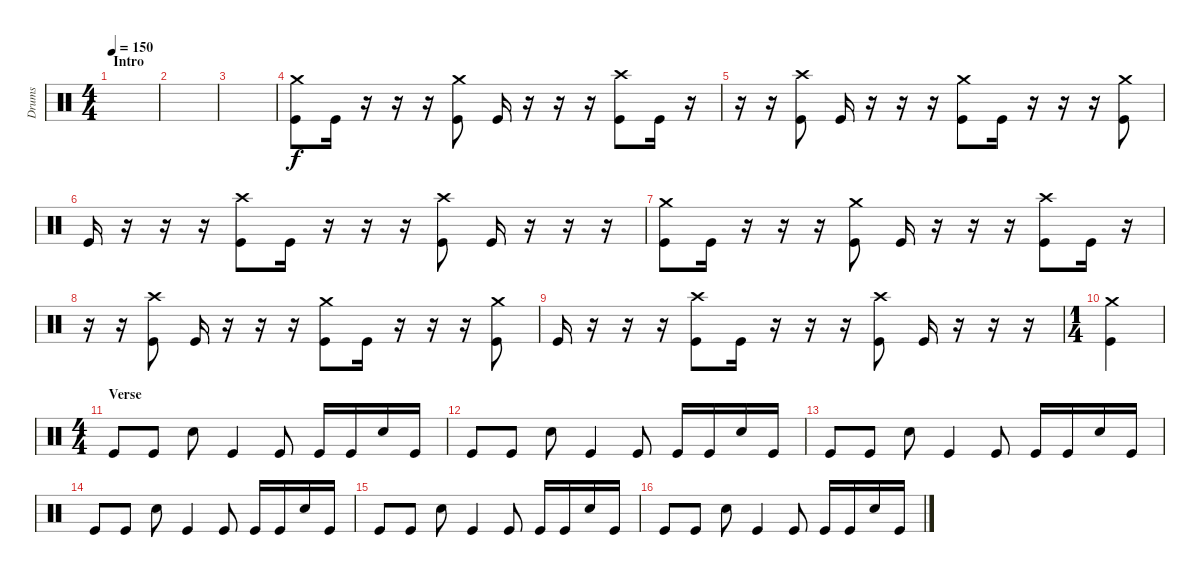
\track ("Drums" "Drums") {instrument percussion}
\staff {score}
\articulation defaults
\ts (4 4)
\section ("" "Intro")
\tempo 150
\clef neutral
\ks c
|
|
|
("Crash medium (hit)" "Kick (hit)").8 "Kick (hit)".16 r.16 r.16 r.16 ("Crash medium (hit)" "Kick (hit)").8 "Kick (hit)".16 r.16 r.16 r.16 ("Crash high (hit)" "Kick (hit)").8 "Kick (hit)".16 r.16 |
r.16 r.16 ("Crash high (hit)" "Kick (hit)").8 "Kick (hit)".16 r.16 r.16 r.16 ("Crash medium (hit)" "Kick (hit)").8 "Kick (hit)".16 r.16 r.16 r.16 ("Crash medium (hit)" "Kick (hit)").8 |
"Kick (hit)".16 r.16 r.16 r.16 ("Crash high (hit)" "Kick (hit)").8 "Kick (hit)".16 r.16 r.16 r.16 ("Crash high (hit)" "Kick (hit)").8 "Kick (hit)".16 r.16 r.16 r.16 |
("Crash medium (hit)" "Kick (hit)").8 "Kick (hit)".16 r.16 r.16 r.16 ("Crash medium (hit)" "Kick (hit)").8 "Kick (hit)".16 r.16 r.16 r.16 ("Crash high (hit)" "Kick (hit)").8 "Kick (hit)".16 r.16 |
r.16 r.16 ("Crash high (hit)" "Kick (hit)").8 "Kick (hit)".16 r.16 r.16 r.16 ("Crash medium (hit)" "Kick (hit)").8 "Kick (hit)".16 r.16 r.16 r.16 ("Crash medium (hit)" "Kick (hit)").8 |
"Kick (hit)".16 r.16 r.16 r.16 ("Crash high (hit)" "Kick (hit)").8 "Kick (hit)".16 r.16 r.16 r.16 ("Crash high (hit)" "Kick (hit)").8 "Kick (hit)".16 r.16 r.16 r.16 |
\ts (1 4)
("Crash medium (hit)" "Kick (hit)").4 |
\ts (4 4)
\section ("" "Verse")
"Kick (hit)".8 "Kick (hit)".8 "Electric Snare (hit)".8 "Kick (hit)".4 "Kick (hit)".8 "Kick (hit)".16 "Kick (hit)".16 "Electric Snare (hit)".16 "Kick (hit)".16 |
"Kick (hit)".8 "Kick (hit)".8 "Electric Snare (hit)".8 "Kick (hit)".4 "Kick (hit)".8 "Kick (hit)".16 "Kick (hit)".16 "Electric Snare (hit)".16 "Kick (hit)".16 |
"Kick (hit)".8 "Kick (hit)".8 "Electric Snare (hit)".8 "Kick (hit)".4 "Kick (hit)".8 "Kick (hit)".16 "Kick (hit)".16 "Electric Snare (hit)".16 "Kick (hit)".16 |
"Kick (hit)".8 "Kick (hit)".8 "Electric Snare (hit)".8 "Kick (hit)".4 "Kick (hit)".8 "Kick (hit)".16 "Kick (hit)".16 "Electric Snare (hit)".16 "Kick (hit)".16 |
"Kick (hit)".8 "Kick (hit)".8 "Electric Snare (hit)".8 "Kick (hit)".4 "Kick (hit)".8 "Kick (hit)".16 "Kick (hit)".16 "Electric Snare (hit)".16 "Kick (hit)".16 |
"Kick (hit)".8 "Kick (hit)".8 "Electric Snare (hit)".8 "Kick (hit)".4 "Kick (hit)".8 "Kick (hit)".16 "Kick (hit)".16 "Electric Snare (hit)".16 "Kick (hit)".16
